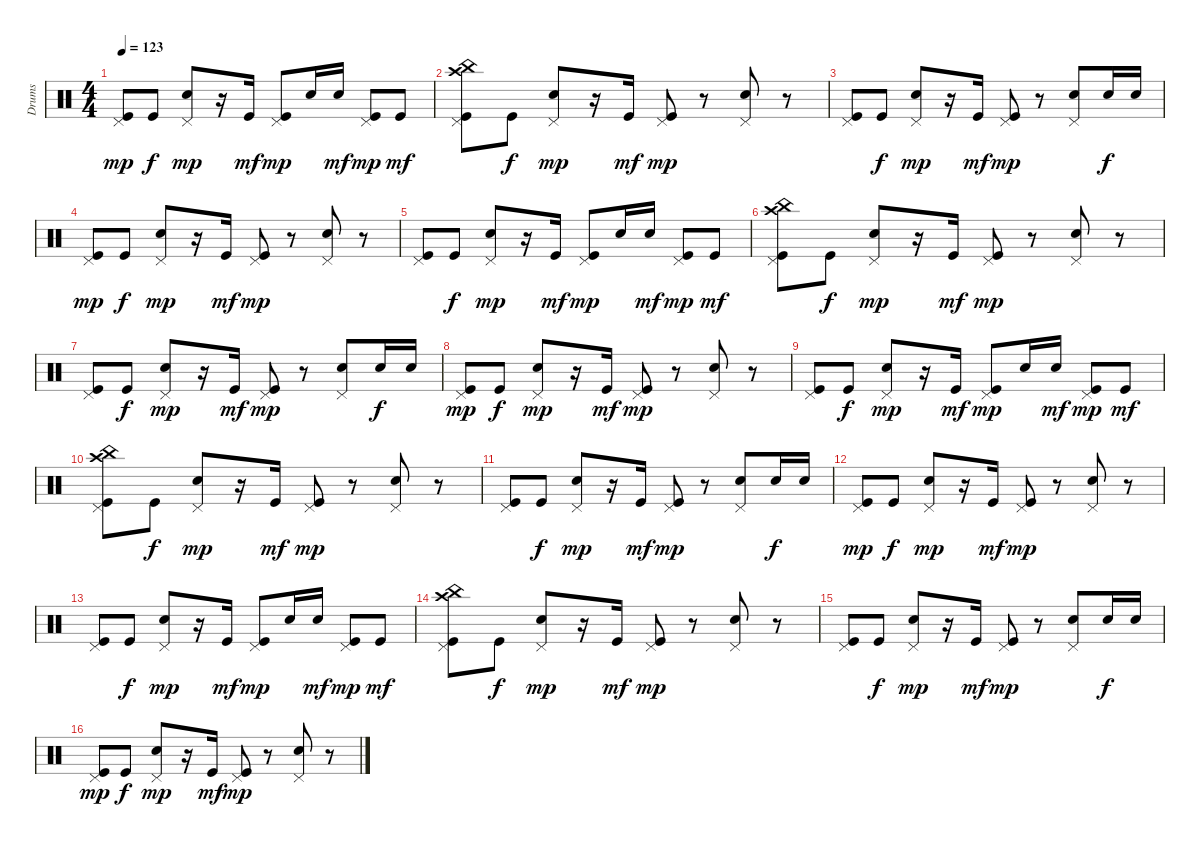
\track ("Drums" "Drums") {instrument percussion}
\staff {score}
\articulation defaults
\ts (4 4)
\tempo 123
\clef neutral
\ks c
("Pedal Hi-Hat (hit)" "Kick (hit)").8{dy mp} "Kick (hit)".8{dy f} ("Pedal Hi-Hat (hit)" "Electric Snare (hit)").8{dy mp} r.16 "Kick (hit)".16{dy mf} ("Pedal Hi-Hat (hit)" "Kick (hit)").8{dy mp} "Electric Snare (hit)".16 "Electric Snare (hit)".16{dy mf} ("Kick (hit)" "Pedal Hi-Hat (hit)").8{dy mp} "Kick (hit)".8{dy mf} |
("Pedal Hi-Hat (hit)" "Kick (hit)" "Crash high (hit)" "China (hit)").8 "Kick (hit)".8{dy f} ("Pedal Hi-Hat (hit)" "Electric Snare (hit)").8{dy mp} r.16 "Kick (hit)".16{dy mf} ("Pedal Hi-Hat (hit)" "Kick (hit)").8{dy mp} r.8 ("Pedal Hi-Hat (hit)" "Electric Snare (hit)").8 r.8 |
("Pedal Hi-Hat (hit)" "Kick (hit)").8 "Kick (hit)".8{dy f} ("Electric Snare (hit)" "Pedal Hi-Hat (hit)").8{dy mp} r.16 "Kick (hit)".16{dy mf} ("Pedal Hi-Hat (hit)" "Kick (hit)").8{dy mp} r.8 ("Pedal Hi-Hat (hit)" "Electric Snare (hit)").8 "Electric Snare (hit)".16{dy f} "Electric Snare (hit)".16 |
("Pedal Hi-Hat (hit)" "Kick (hit)").8{dy mp} "Kick (hit)".8{dy f} ("Pedal Hi-Hat (hit)" "Electric Snare (hit)").8{dy mp} r.16 "Kick (hit)".16{dy mf} ("Pedal Hi-Hat (hit)" "Kick (hit)").8{dy mp} r.8 ("Pedal Hi-Hat (hit)" "Electric Snare (hit)").8 r.8 |
("Pedal Hi-Hat (hit)" "Kick (hit)").8 "Kick (hit)".8{dy f} ("Pedal Hi-Hat (hit)" "Electric Snare (hit)").8{dy mp} r.16 "Kick (hit)".16{dy mf} ("Pedal Hi-Hat (hit)" "Kick (hit)").8{dy mp} "Electric Snare (hit)".16 "Electric Snare (hit)".16{dy mf} ("Kick (hit)" "Pedal Hi-Hat (hit)").8{dy mp} "Kick (hit)".8{dy mf} |
("Pedal Hi-Hat (hit)" "Kick (hit)" "Crash high (hit)" "China (hit)").8 "Kick (hit)".8{dy f} ("Pedal Hi-Hat (hit)" "Electric Snare (hit)").8{dy mp} r.16 "Kick (hit)".16{dy mf} ("Pedal Hi-Hat (hit)" "Kick (hit)").8{dy mp} r.8 ("Pedal Hi-Hat (hit)" "Electric Snare (hit)").8 r.8 |
("Pedal Hi-Hat (hit)" "Kick (hit)").8 "Kick (hit)".8{dy f} ("Electric Snare (hit)" "Pedal Hi-Hat (hit)").8{dy mp} r.16 "Kick (hit)".16{dy mf} ("Pedal Hi-Hat (hit)" "Kick (hit)").8{dy mp} r.8 ("Pedal Hi-Hat (hit)" "Electric Snare (hit)").8 "Electric Snare (hit)".16{dy f} "Electric Snare (hit)".16 |
("Pedal Hi-Hat (hit)" "Kick (hit)").8{dy mp} "Kick (hit)".8{dy f} ("Pedal Hi-Hat (hit)" "Electric Snare (hit)").8{dy mp} r.16 "Kick (hit)".16{dy mf} ("Pedal Hi-Hat (hit)" "Kick (hit)").8{dy mp} r.8 ("Pedal Hi-Hat (hit)" "Electric Snare (hit)").8 r.8 |
("Pedal Hi-Hat (hit)" "Kick (hit)").8 "Kick (hit)".8{dy f} ("Pedal Hi-Hat (hit)" "Electric Snare (hit)").8{dy mp} r.16 "Kick (hit)".16{dy mf} ("Pedal Hi-Hat (hit)" "Kick (hit)").8{dy mp} "Electric Snare (hit)".16 "Electric Snare (hit)".16{dy mf} ("Kick (hit)" "Pedal Hi-Hat (hit)").8{dy mp} "Kick (hit)".8{dy mf} |
("Pedal Hi-Hat (hit)" "Kick (hit)" "Crash high (hit)" "China (hit)").8 "Kick (hit)".8{dy f} ("Pedal Hi-Hat (hit)" "Electric Snare (hit)").8{dy mp} r.16 "Kick (hit)".16{dy mf} ("Pedal Hi-Hat (hit)" "Kick (hit)").8{dy mp} r.8 ("Pedal Hi-Hat (hit)" "Electric Snare (hit)").8 r.8 |
("Pedal Hi-Hat (hit)" "Kick (hit)").8 "Kick (hit)".8{dy f} ("Electric Snare (hit)" "Pedal Hi-Hat (hit)").8{dy mp} r.16 "Kick (hit)".16{dy mf} ("Pedal Hi-Hat (hit)" "Kick (hit)").8{dy mp} r.8 ("Pedal Hi-Hat (hit)" "Electric Snare (hit)").8 "Electric Snare (hit)".16{dy f} "Electric Snare (hit)".16 |
("Pedal Hi-Hat (hit)" "Kick (hit)").8{dy mp} "Kick (hit)".8{dy f} ("Pedal Hi-Hat (hit)" "Electric Snare (hit)").8{dy mp} r.16 "Kick (hit)".16{dy mf} ("Pedal Hi-Hat (hit)" "Kick (hit)").8{dy mp} r.8 ("Pedal Hi-Hat (hit)" "Electric Snare (hit)").8 r.8 |
("Pedal Hi-Hat (hit)" "Kick (hit)").8 "Kick (hit)".8{dy f} ("Pedal Hi-Hat (hit)" "Electric Snare (hit)").8{dy mp} r.16 "Kick (hit)".16{dy mf} ("Pedal Hi-Hat (hit)" "Kick (hit)").8{dy mp} "Electric Snare (hit)".16 "Electric Snare (hit)".16{dy mf} ("Kick (hit)" "Pedal Hi-Hat (hit)").8{dy mp} "Kick (hit)".8{dy mf} |
("Pedal Hi-Hat (hit)" "Kick (hit)" "Crash high (hit)" "China (hit)").8 "Kick (hit)".8{dy f} ("Pedal Hi-Hat (hit)" "Electric Snare (hit)").8{dy mp} r.16 "Kick (hit)".16{dy mf} ("Pedal Hi-Hat (hit)" "Kick (hit)").8{dy mp} r.8 ("Pedal Hi-Hat (hit)" "Electric Snare (hit)").8 r.8 |
("Pedal Hi-Hat (hit)" "Kick (hit)").8 "Kick (hit)".8{dy f} ("Electric Snare (hit)" "Pedal Hi-Hat (hit)").8{dy mp} r.16 "Kick (hit)".16{dy mf} ("Pedal Hi-Hat (hit)" "Kick (hit)").8{dy mp} r.8 ("Pedal Hi-Hat (hit)" "Electric Snare (hit)").8 "Electric Snare (hit)".16{dy f} "Electric Snare (hit)".16 |
("Pedal Hi-Hat (hit)" "Kick (hit)").8{dy mp} "Kick (hit)".8{dy f} ("Pedal Hi-Hat (hit)" "Electric Snare (hit)").8{dy mp} r.16 "Kick (hit)".16{dy mf} ("Pedal Hi-Hat (hit)" "Kick (hit)").8{dy mp} r.8 ("Pedal Hi-Hat (hit)" "Electric Snare (hit)").8 r.8
